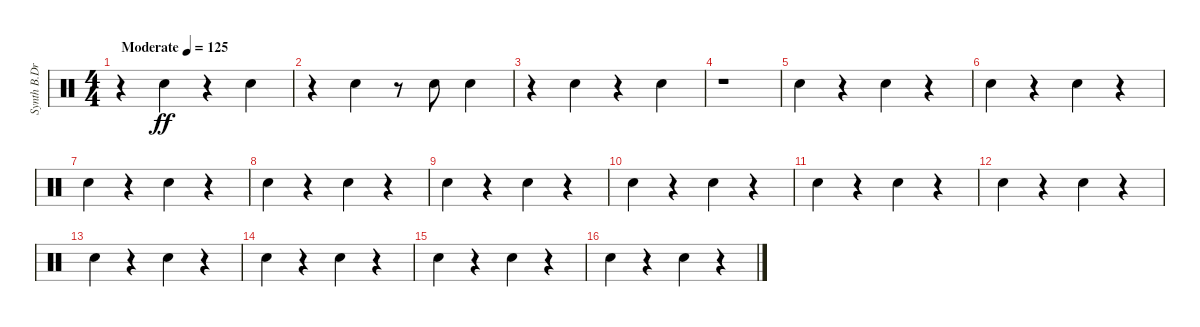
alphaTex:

\track ("Synth B.Drum" "Synth B.Dr") {instrument percussion}
\staff {score}
\articulation defaults
\ts (4 4)
\tempo (125 "Moderate")
\clef neutral
\ks c
r.4{dy ff} "Snare (hit)".4 r.4 "Snare (hit)".4 |
r.4 "Snare (hit)".4 r.8 "Snare (hit)".8 "Snare (hit)".4 |
r.4 "Snare (hit)".4 r.4 "Snare (hit)".4 |
r.1 |
"Snare (hit)".4 r.4 "Snare (hit)".4 r.4 |
"Snare (hit)".4 r.4 "Snare (hit)".4 r.4 |
"Snare (hit)".4 r.4 "Snare (hit)".4 r.4 |
"Snare (hit)".4 r.4 "Snare (hit)".4 r.4 |
"Snare (hit)".4 r.4 "Snare (hit)".4 r.4 |
"Snare (hit)".4 r.4 "Snare (hit)".4 r.4 |
"Snare (hit)".4 r.4 "Snare (hit)".4 r.4 |
"Snare (hit)".4 r.4 "Snare (hit)".4 r.4 |
"Snare (hit)".4 r.4 "Snare (hit)".4 r.4 |
"Snare (hit)".4 r.4 "Snare (hit)".4 r.4 |
"Snare (hit)".4 r.4 "Snare (hit)".4 r.4 |
"Snare (hit)".4 r.4 "Snare (hit)".4 r.4
